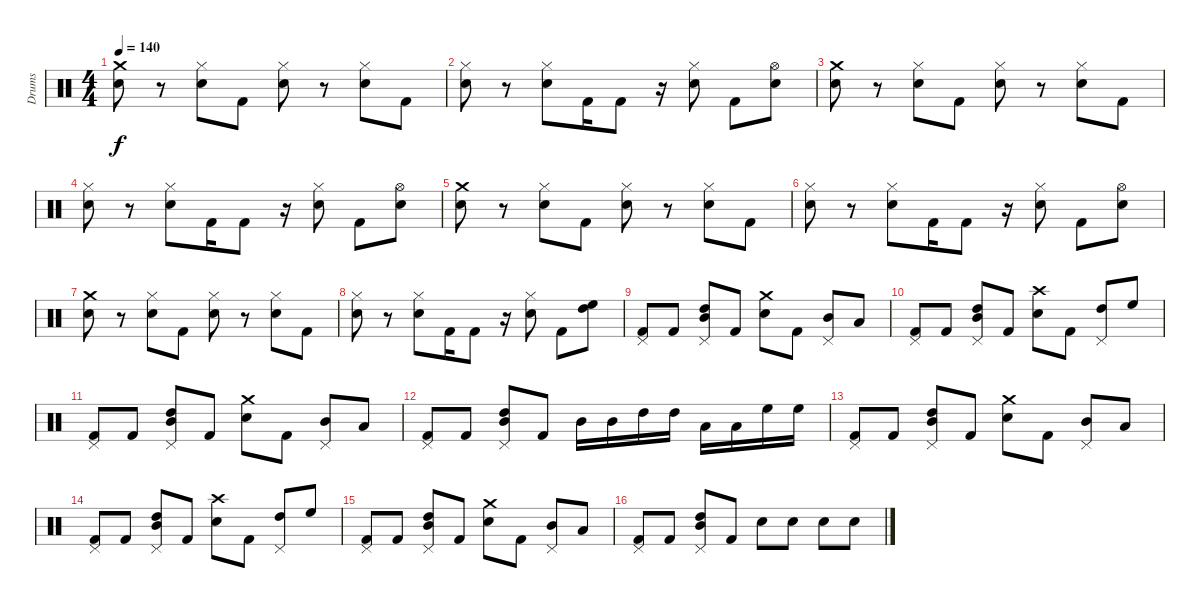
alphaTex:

\track ("Drums" "Drums") {instrument percussion}
\staff {score}
\articulation defaults
\ts (4 4)
\tempo 140
\clef neutral
\ks c
("Electric Snare (hit)" "Crash medium (hit)").8{dy f} r.8 ("Electric Snare (hit)" "Hi-Hat (closed)").8 "Kick (hit) 2".8 ("Electric Snare (hit)" "Hi-Hat (closed)").8 r.8 ("Electric Snare (hit)" "Hi-Hat (closed)").8 "Kick (hit) 2".8 |
("Electric Snare (hit)" "Hi-Hat (closed)").8 r.8 ("Electric Snare (hit)" "Hi-Hat (closed)").8 "Kick (hit) 2".16 "Kick (hit) 2".8 r.16 ("Electric Snare (hit)" "Hi-Hat (closed)").8 "Kick (hit) 2".8 ("Electric Snare (hit)" "Hi-Hat (open)").8 |
("Electric Snare (hit)" "Crash medium (hit)").8 r.8 ("Electric Snare (hit)" "Hi-Hat (closed)").8 "Kick (hit) 2".8 ("Electric Snare (hit)" "Hi-Hat (closed)").8 r.8 ("Electric Snare (hit)" "Hi-Hat (closed)").8 "Kick (hit) 2".8 |
("Electric Snare (hit)" "Hi-Hat (closed)").8 r.8 ("Electric Snare (hit)" "Hi-Hat (closed)").8 "Kick (hit) 2".16 "Kick (hit) 2".8 r.16 ("Electric Snare (hit)" "Hi-Hat (closed)").8 "Kick (hit) 2".8 ("Electric Snare (hit)" "Hi-Hat (open)").8 |
("Electric Snare (hit)" "Crash medium (hit)").8 r.8 ("Electric Snare (hit)" "Hi-Hat (closed)").8 "Kick (hit) 2".8 ("Electric Snare (hit)" "Hi-Hat (closed)").8 r.8 ("Electric Snare (hit)" "Hi-Hat (closed)").8 "Kick (hit) 2".8 |
("Electric Snare (hit)" "Hi-Hat (closed)").8 r.8 ("Electric Snare (hit)" "Hi-Hat (closed)").8 "Kick (hit) 2".16 "Kick (hit) 2".8 r.16 ("Electric Snare (hit)" "Hi-Hat (closed)").8 "Kick (hit) 2".8 ("Electric Snare (hit)" "Hi-Hat (open)").8 |
("Electric Snare (hit)" "Crash medium (hit)").8 r.8 ("Electric Snare (hit)" "Hi-Hat (closed)").8 "Kick (hit) 2".8 ("Electric Snare (hit)" "Hi-Hat (closed)").8 r.8 ("Electric Snare (hit)" "Hi-Hat (closed)").8 "Kick (hit) 2".8 |
("Electric Snare (hit)" "Hi-Hat (closed)").8 r.8 ("Electric Snare (hit)" "Hi-Hat (closed)").8 "Kick (hit) 2".16 "Kick (hit) 2".8 r.16 ("Electric Snare (hit)" "Hi-Hat (closed)").8 "Kick (hit) 2".8 ("High Tom (hit)" "High Floor Tom (hit)").8 |
("Kick (hit) 2" "Pedal Hi-Hat (hit)").8 "Kick (hit) 2".8 ("Mid Tom (hit)" "High Tom (hit)" "Pedal Hi-Hat (hit)").8 "Kick (hit) 2".8 ("Electric Snare (hit)" "Crash medium (hit)").8 "Kick (hit) 2".8 ("Mid Tom (hit)" "Pedal Hi-Hat (hit)").8 "Low Tom (hit)".8 |
("Kick (hit) 2" "Pedal Hi-Hat (hit)").8 "Kick (hit) 2".8 ("Mid Tom (hit)" "High Tom (hit)" "Pedal Hi-Hat (hit)").8 "Kick (hit) 2".8 ("Electric Snare (hit)" "Crash high (hit)").8 "Kick (hit) 2".8 ("High Tom (hit)" "Pedal Hi-Hat (hit)").8 "High Floor Tom (hit)".8 |
("Kick (hit) 2" "Pedal Hi-Hat (hit)").8 "Kick (hit) 2".8 ("Mid Tom (hit)" "High Tom (hit)" "Pedal Hi-Hat (hit)").8 "Kick (hit) 2".8 ("Electric Snare (hit)" "Crash medium (hit)").8 "Kick (hit) 2".8 ("Mid Tom (hit)" "Pedal Hi-Hat (hit)").8 "Low Tom (hit)".8 |
("Kick (hit) 2" "Pedal Hi-Hat (hit)").8 "Kick (hit) 2".8 ("Mid Tom (hit)" "High Tom (hit)" "Pedal Hi-Hat (hit)").8 "Kick (hit) 2".8 "Mid Tom (hit)".16 "Mid Tom (hit)".16 "High Tom (hit)".16 "High Tom (hit)".16 "Low Tom (hit)".16 "Low Tom (hit)".16 "High Floor Tom (hit)".16 "High Floor Tom (hit)".16 |
("Kick (hit) 2" "Pedal Hi-Hat (hit)").8 "Kick (hit) 2".8 ("Mid Tom (hit)" "High Tom (hit)" "Pedal Hi-Hat (hit)").8 "Kick (hit) 2".8 ("Electric Snare (hit)" "Crash medium (hit)").8 "Kick (hit) 2".8 ("Mid Tom (hit)" "Pedal Hi-Hat (hit)").8 "Low Tom (hit)".8 |
("Kick (hit) 2" "Pedal Hi-Hat (hit)").8 "Kick (hit) 2".8 ("Mid Tom (hit)" "High Tom (hit)" "Pedal Hi-Hat (hit)").8 "Kick (hit) 2".8 ("Electric Snare (hit)" "Crash high (hit)").8 "Kick (hit) 2".8 ("High Tom (hit)" "Pedal Hi-Hat (hit)").8 "High Floor Tom (hit)".8 |
("Kick (hit) 2" "Pedal Hi-Hat (hit)").8 "Kick (hit) 2".8 ("Mid Tom (hit)" "High Tom (hit)" "Pedal Hi-Hat (hit)").8 "Kick (hit) 2".8 ("Electric Snare (hit)" "Crash medium (hit)").8 "Kick (hit) 2".8 ("Mid Tom (hit)" "Pedal Hi-Hat (hit)").8 "Low Tom (hit)".8 |
("Kick (hit) 2" "Pedal Hi-Hat (hit)").8 "Kick (hit) 2".8 ("Mid Tom (hit)" "High Tom (hit)" "Pedal Hi-Hat (hit)").8 "Kick (hit) 2".8 "Electric Snare (hit)".8 "Electric Snare (hit)".8 "Electric Snare (hit)".8 "Electric Snare (hit)".8
